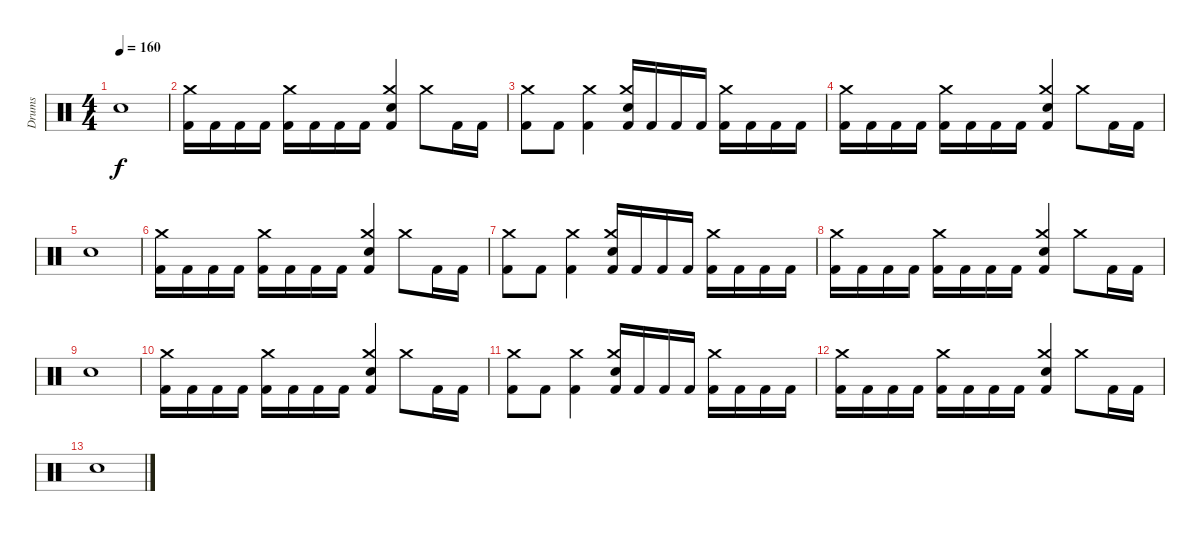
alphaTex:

\track ("Drums" "Drums") {instrument percussion}
\staff {score}
\articulation defaults
\ts (4 4)
\tempo 160
\clef neutral
\ks c "Electric Snare (hit)".1{dy f}
|
("Crash medium (hit)" "Kick (hit) 2").16 "Kick (hit) 2".16 "Kick (hit) 2".16 "Kick (hit) 2".16 ("Crash medium (hit)" "Kick (hit) 2").16 "Kick (hit) 2".16 "Kick (hit) 2".16 "Kick (hit) 2".16 ("Crash medium (hit)" "Electric Snare (hit)" "Kick (hit) 2").4 "Crash medium (hit)".8 "Kick (hit) 2".16 "Kick (hit) 2".16 |
("Crash medium (hit)" "Kick (hit) 2").8 "Kick (hit) 2".8 ("Crash medium (hit)" "Kick (hit) 2").4 ("Crash medium (hit)" "Electric Snare (hit)" "Kick (hit) 2").16 "Kick (hit) 2".16 "Kick (hit) 2".16 "Kick (hit) 2".16 ("Crash medium (hit)" "Kick (hit) 2").16 "Kick (hit) 2".16 "Kick (hit) 2".16 "Kick (hit) 2".16 |
("Crash medium (hit)" "Kick (hit) 2").16 "Kick (hit) 2".16 "Kick (hit) 2".16 "Kick (hit) 2".16 ("Crash medium (hit)" "Kick (hit) 2").16 "Kick (hit) 2".16 "Kick (hit) 2".16 "Kick (hit) 2".16 ("Crash medium (hit)" "Electric Snare (hit)" "Kick (hit) 2").4 "Crash medium (hit)".8 "Kick (hit) 2".16 "Kick (hit) 2".16 |
"Electric Snare (hit)".1 |
("Crash medium (hit)" "Kick (hit) 2").16 "Kick (hit) 2".16 "Kick (hit) 2".16 "Kick (hit) 2".16 ("Crash medium (hit)" "Kick (hit) 2").16 "Kick (hit) 2".16 "Kick (hit) 2".16 "Kick (hit) 2".16 ("Crash medium (hit)" "Electric Snare (hit)" "Kick (hit) 2").4 "Crash medium (hit)".8 "Kick (hit) 2".16 "Kick (hit) 2".16 |
("Crash medium (hit)" "Kick (hit) 2").8 "Kick (hit) 2".8 ("Crash medium (hit)" "Kick (hit) 2").4 ("Crash medium (hit)" "Electric Snare (hit)" "Kick (hit) 2").16 "Kick (hit) 2".16 "Kick (hit) 2".16 "Kick (hit) 2".16 ("Crash medium (hit)" "Kick (hit) 2").16 "Kick (hit) 2".16 "Kick (hit) 2".16 "Kick (hit) 2".16 |
("Crash medium (hit)" "Kick (hit) 2").16 "Kick (hit) 2".16 "Kick (hit) 2".16 "Kick (hit) 2".16 ("Crash medium (hit)" "Kick (hit) 2").16 "Kick (hit) 2".16 "Kick (hit) 2".16 "Kick (hit) 2".16 ("Crash medium (hit)" "Electric Snare (hit)" "Kick (hit) 2").4 "Crash medium (hit)".8 "Kick (hit) 2".16 "Kick (hit) 2".16 |
"Electric Snare (hit)".1 |
("Crash medium (hit)" "Kick (hit) 2").16 "Kick (hit) 2".16 "Kick (hit) 2".16 "Kick (hit) 2".16 ("Crash medium (hit)" "Kick (hit) 2").16 "Kick (hit) 2".16 "Kick (hit) 2".16 "Kick (hit) 2".16 ("Crash medium (hit)" "Electric Snare (hit)" "Kick (hit) 2").4 "Crash medium (hit)".8 "Kick (hit) 2".16 "Kick (hit) 2".16 |
("Crash medium (hit)" "Kick (hit) 2").8 "Kick (hit) 2".8 ("Crash medium (hit)" "Kick (hit) 2").4 ("Crash medium (hit)" "Electric Snare (hit)" "Kick (hit) 2").16 "Kick (hit) 2".16 "Kick (hit) 2".16 "Kick (hit) 2".16 ("Crash medium (hit)" "Kick (hit) 2").16 "Kick (hit) 2".16 "Kick (hit) 2".16 "Kick (hit) 2".16 |
("Crash medium (hit)" "Kick (hit) 2").16 "Kick (hit) 2".16 "Kick (hit) 2".16 "Kick (hit) 2".16 ("Crash medium (hit)" "Kick (hit) 2").16 "Kick (hit) 2".16 "Kick (hit) 2".16 "Kick (hit) 2".16 ("Crash medium (hit)" "Electric Snare (hit)" "Kick (hit) 2").4 "Crash medium (hit)".8 "Kick (hit) 2".16 "Kick (hit) 2".16 |
"Electric Snare (hit)".1
